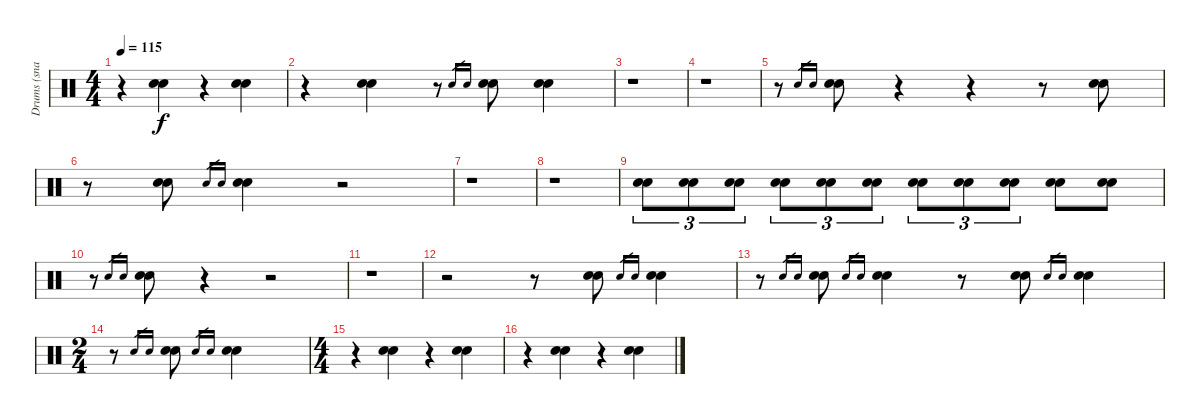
\track ("Drums (snare drum)" "Drums (sna") {instrument percussion}
\staff {score}
\articulation defaults
\ts (4 4)
\tempo 115
\clef neutral
\ks c
r.4{dy f} ("Electric Snare (hit)" "Snare (hit) 2").4 r.4 ("Electric Snare (hit)" "Snare (hit) 2").4 |
r.4 ("Electric Snare (hit)" "Snare (hit) 2").4 r.8 "Electric Snare (hit)".16{gr} "Snare (hit) 2".16{gr} ("Electric Snare (hit)" "Snare (hit) 2").8 ("Electric Snare (hit)" "Snare (hit) 2").4 |
r.1 |
r.1 |
r.8 "Electric Snare (hit)".16{gr} "Snare (hit) 2".16{gr} ("Electric Snare (hit)" "Snare (hit) 2").8 r.4 r.4 r.8 ("Electric Snare (hit)" "Snare (hit) 2").8 |
r.8 ("Electric Snare (hit)" "Snare (hit) 2").8 "Electric Snare (hit)".16{gr} "Snare (hit) 2".16{gr} ("Electric Snare (hit)" "Snare (hit) 2").4 r.2 |
r.1 |
r.1 |
("Electric Snare (hit)" "Snare (hit) 2").8{tu (3 2)} ("Electric Snare (hit)" "Snare (hit) 2").8{tu (3 2)} ("Electric Snare (hit)" "Snare (hit) 2").8{tu (3 2)} ("Electric Snare (hit)" "Snare (hit) 2").8{tu (3 2)} ("Electric Snare (hit)" "Snare (hit) 2").8{tu (3 2)} ("Electric Snare (hit)" "Snare (hit) 2").8{tu (3 2)} ("Electric Snare (hit)" "Snare (hit) 2").8{tu (3 2)} ("Electric Snare (hit)" "Snare (hit) 2").8{tu (3 2)} ("Electric Snare (hit)" "Snare (hit) 2").8{tu (3 2)} ("Electric Snare (hit)" "Snare (hit) 2").8 ("Electric Snare (hit)" "Snare (hit) 2").8 |
r.8 "Electric Snare (hit)".16{gr} "Snare (hit) 2".16{gr} ("Electric Snare (hit)" "Snare (hit) 2").8 r.4 r.2 |
r.1 |
r.2 r.8 ("Electric Snare (hit)" "Snare (hit) 2").8 "Electric Snare (hit)".16{gr} "Snare (hit) 2".16{gr} ("Electric Snare (hit)" "Snare (hit) 2").4 |
r.8 "Electric Snare (hit)".16{gr} "Snare (hit) 2".16{gr} ("Electric Snare (hit)" "Snare (hit) 2").8 "Electric Snare (hit)".16{gr} "Snare (hit) 2".16{gr} ("Electric Snare (hit)" "Snare (hit) 2").4 r.8 ("Electric Snare (hit)" "Snare (hit) 2").8 "Electric Snare (hit)".16{gr} "Snare (hit) 2".16{gr} ("Electric Snare (hit)" "Snare (hit) 2").4 |
\ts (2 4)
r.8 "Electric Snare (hit)".16{gr} "Snare (hit) 2".16{gr} ("Electric Snare (hit)" "Snare (hit) 2").8 "Electric Snare (hit)".16{gr} "Snare (hit) 2".16{gr} ("Electric Snare (hit)" "Snare (hit) 2").4 |
\ts (4 4)
r.4 ("Electric Snare (hit)" "Snare (hit) 2").4 r.4 ("Electric Snare (hit)" "Snare (hit) 2").4 |
r.4 ("Electric Snare (hit)" "Snare (hit) 2").4 r.4 ("Electric Snare (hit)" "Snare (hit) 2").4
